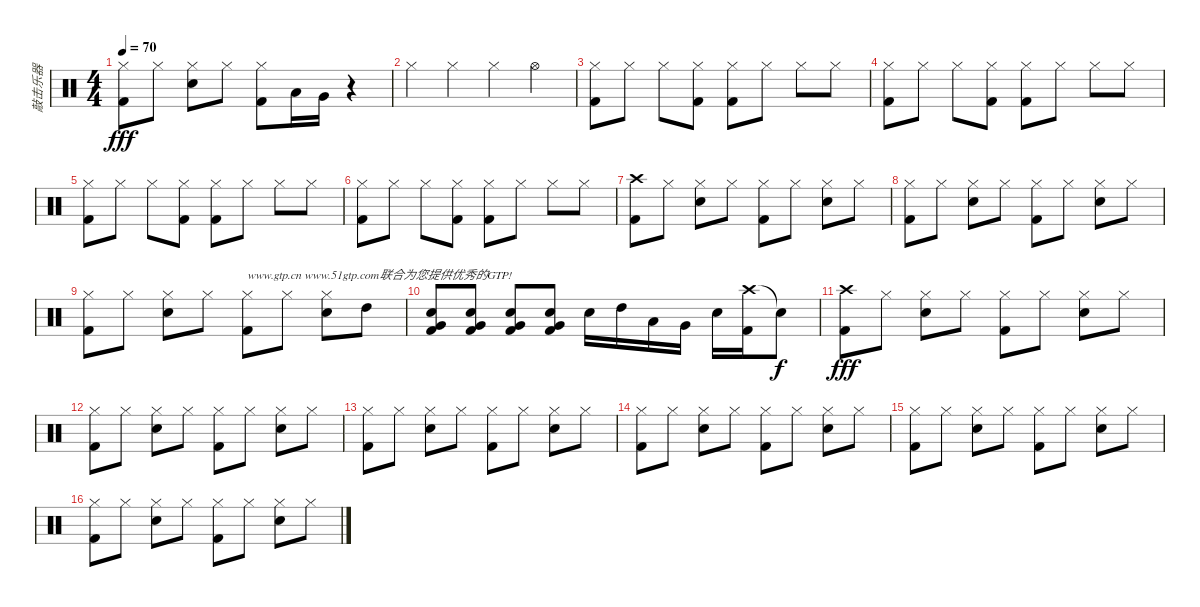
\track ("敲击乐器" "敲击乐器") {instrument percussion}
\staff {score}
\articulation defaults
\ts (4 4)
\tempo 70
\clef neutral
\ks c
("Hi-Hat (closed)" "Kick (hit) 2").8{dy fff} "Hi-Hat (closed)".8 ("Hi-Hat (closed)" "Electric Snare (hit)").8 "Hi-Hat (closed)".8 ("Hi-Hat (closed)" "Kick (hit) 2").8 "Low Tom (hit)".16 "Very Low Tom (hit)".16 r.4 |
"Hi-Hat (closed)".4 "Hi-Hat (closed)".4 "Hi-Hat (closed)".4 "Hi-Hat (open)".4 |
("Hi-Hat (closed)" "Kick (hit) 2").8 "Hi-Hat (closed)".8 "Hi-Hat (closed)".8 ("Hi-Hat (closed)" "Kick (hit) 2").8 ("Hi-Hat (closed)" "Kick (hit) 2").8 "Hi-Hat (closed)".8 "Hi-Hat (closed)".8 "Hi-Hat (closed)".8 |
("Hi-Hat (closed)" "Kick (hit) 2").8 "Hi-Hat (closed)".8 "Hi-Hat (closed)".8 ("Hi-Hat (closed)" "Kick (hit) 2").8 ("Hi-Hat (closed)" "Kick (hit) 2").8 "Hi-Hat (closed)".8 "Hi-Hat (closed)".8 "Hi-Hat (closed)".8 |
("Hi-Hat (closed)" "Kick (hit) 2").8 "Hi-Hat (closed)".8 "Hi-Hat (closed)".8 ("Hi-Hat (closed)" "Kick (hit) 2").8 ("Hi-Hat (closed)" "Kick (hit) 2").8 "Hi-Hat (closed)".8 "Hi-Hat (closed)".8 "Hi-Hat (closed)".8 |
("Hi-Hat (closed)" "Kick (hit) 2").8 "Hi-Hat (closed)".8 "Hi-Hat (closed)".8 ("Hi-Hat (closed)" "Kick (hit) 2").8 ("Hi-Hat (closed)" "Kick (hit) 2").8 "Hi-Hat (closed)".8 "Hi-Hat (closed)".8 "Hi-Hat (closed)".8 |
("Crash high (hit)" "Kick (hit) 2").8 "Hi-Hat (closed)".8 ("Hi-Hat (closed)" "Electric Snare (hit)").8 "Hi-Hat (closed)".8 ("Hi-Hat (closed)" "Kick (hit) 2").8 "Hi-Hat (closed)".8 ("Hi-Hat (closed)" "Electric Snare (hit)").8 "Hi-Hat (closed)".8 |
("Hi-Hat (closed)" "Kick (hit) 2").8 "Hi-Hat (closed)".8 ("Hi-Hat (closed)" "Electric Snare (hit)").8 "Hi-Hat (closed)".8 ("Hi-Hat (closed)" "Kick (hit) 2").8 "Hi-Hat (closed)".8 ("Hi-Hat (closed)" "Electric Snare (hit)").8 "Hi-Hat (closed)".8 |
("Hi-Hat (closed)" "Kick (hit) 2").8 "Hi-Hat (closed)".8 ("Hi-Hat (closed)" "Electric Snare (hit)").8 "Hi-Hat (closed)".8 ("Hi-Hat (closed)" "Kick (hit) 2").8{txt "www.gtp.cn www.51gtp.com联合为您提供优秀的GTP!"} "Hi-Hat (closed)".8 ("Hi-Hat (closed)" "Electric Snare (hit)").8 "High Tom (hit)".8 |
("Electric Snare (hit)" "Very Low Tom (hit)" "Kick (hit) 2").8 ("Electric Snare (hit)" "Very Low Tom (hit)" "Kick (hit) 2").8 ("Electric Snare (hit)" "Very Low Tom (hit)" "Kick (hit) 2").8 ("Electric Snare (hit)" "Very Low Tom (hit)" "Kick (hit) 2").8 "Electric Snare (hit)".16 "High Tom (hit)".16 "Low Tom (hit)".16 "Very Low Tom (hit)".16 "Electric Snare (hit)".16 ("Crash high (hit)" "Kick (hit) 2").16 "Snare (hit)"{t}.8{dy f} |
("Crash high (hit)" "Kick (hit) 2").8{dy fff} "Hi-Hat (closed)".8 ("Hi-Hat (closed)" "Electric Snare (hit)").8 "Hi-Hat (closed)".8 ("Hi-Hat (closed)" "Kick (hit) 2").8 "Hi-Hat (closed)".8 ("Hi-Hat (closed)" "Electric Snare (hit)").8 "Hi-Hat (closed)".8 |
("Hi-Hat (closed)" "Kick (hit) 2").8 "Hi-Hat (closed)".8 ("Hi-Hat (closed)" "Electric Snare (hit)").8 "Hi-Hat (closed)".8 ("Hi-Hat (closed)" "Kick (hit) 2").8 "Hi-Hat (closed)".8 ("Hi-Hat (closed)" "Electric Snare (hit)").8 "Hi-Hat (closed)".8 |
("Hi-Hat (closed)" "Kick (hit) 2").8 "Hi-Hat (closed)".8 ("Hi-Hat (closed)" "Electric Snare (hit)").8 "Hi-Hat (closed)".8 ("Hi-Hat (closed)" "Kick (hit) 2").8 "Hi-Hat (closed)".8 ("Hi-Hat (closed)" "Electric Snare (hit)").8 "Hi-Hat (closed)".8 |
("Hi-Hat (closed)" "Kick (hit) 2").8 "Hi-Hat (closed)".8 ("Hi-Hat (closed)" "Electric Snare (hit)").8 "Hi-Hat (closed)".8 ("Hi-Hat (closed)" "Kick (hit) 2").8 "Hi-Hat (closed)".8 ("Hi-Hat (closed)" "Electric Snare (hit)").8 "Hi-Hat (closed)".8 |
("Hi-Hat (closed)" "Kick (hit) 2").8 "Hi-Hat (closed)".8 ("Hi-Hat (closed)" "Electric Snare (hit)").8 "Hi-Hat (closed)".8 ("Hi-Hat (closed)" "Kick (hit) 2").8 "Hi-Hat (closed)".8 ("Hi-Hat (closed)" "Electric Snare (hit)").8 "Hi-Hat (closed)".8 |
("Hi-Hat (closed)" "Kick (hit) 2").8 "Hi-Hat (closed)".8 ("Hi-Hat (closed)" "Electric Snare (hit)").8 "Hi-Hat (closed)".8 ("Hi-Hat (closed)" "Kick (hit) 2").8 "Hi-Hat (closed)".8 ("Hi-Hat (closed)" "Electric Snare (hit)").8 "Hi-Hat (closed)".8
